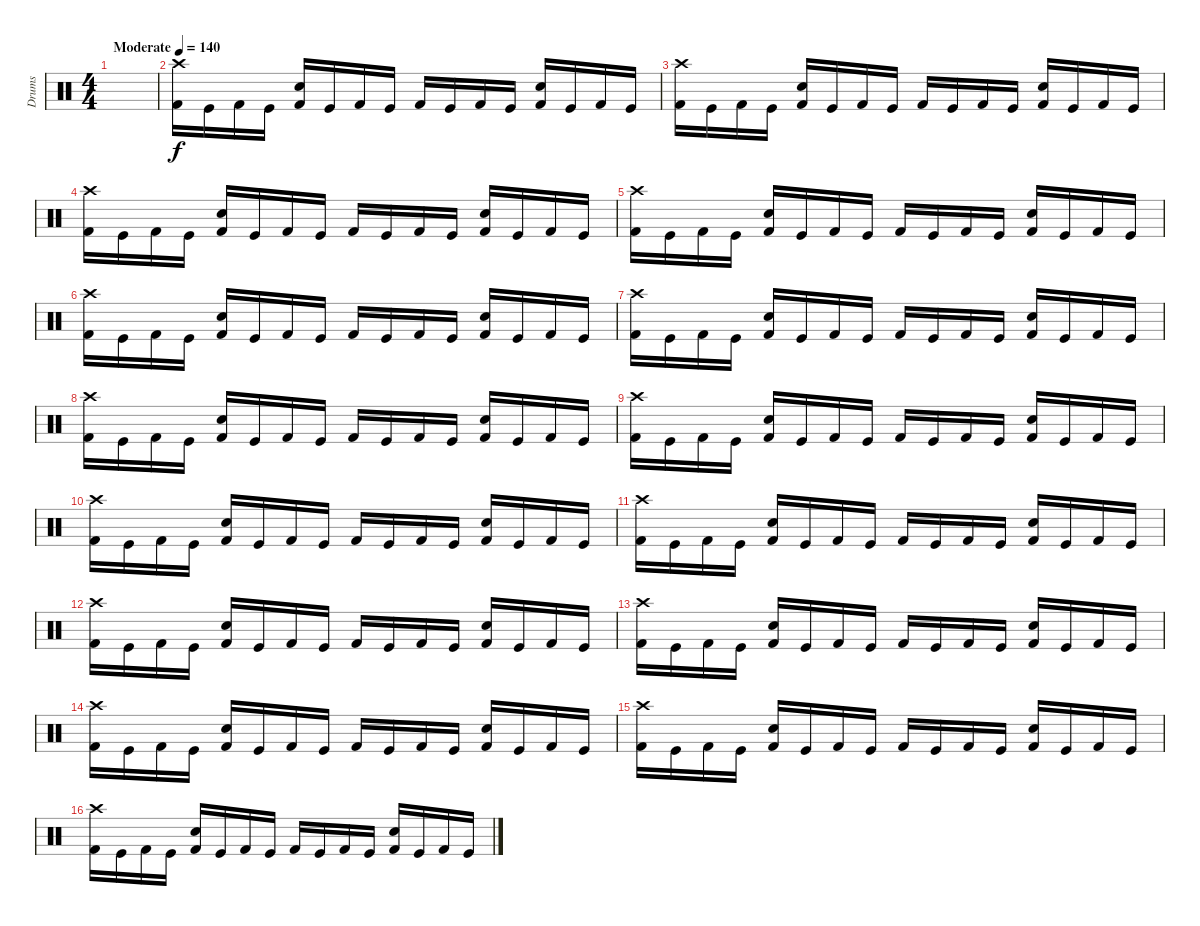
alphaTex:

\track ("Drums" "Drums") {instrument percussion}
\staff {score}
\articulation defaults
\ts (4 4)
\tempo (140 "Moderate")
\clef neutral
\ks c
|
("Crash high (hit)" "Kick (hit) 2").16 "Kick (hit)".16 "Kick (hit) 2".16 "Kick (hit)".16 ("Electric Snare (hit)" "Kick (hit) 2").16 "Kick (hit)".16 "Kick (hit) 2".16 "Kick (hit)".16 "Kick (hit) 2".16 "Kick (hit)".16 "Kick (hit) 2".16 "Kick (hit)".16 ("Electric Snare (hit)" "Kick (hit) 2").16 "Kick (hit)".16 "Kick (hit) 2".16 "Kick (hit)".16 |
("Crash high (hit)" "Kick (hit) 2").16 "Kick (hit)".16 "Kick (hit) 2".16 "Kick (hit)".16 ("Electric Snare (hit)" "Kick (hit) 2").16 "Kick (hit)".16 "Kick (hit) 2".16 "Kick (hit)".16 "Kick (hit) 2".16 "Kick (hit)".16 "Kick (hit) 2".16 "Kick (hit)".16 ("Electric Snare (hit)" "Kick (hit) 2").16 "Kick (hit)".16 "Kick (hit) 2".16 "Kick (hit)".16 |
("Crash high (hit)" "Kick (hit) 2").16 "Kick (hit)".16 "Kick (hit) 2".16 "Kick (hit)".16 ("Electric Snare (hit)" "Kick (hit) 2").16 "Kick (hit)".16 "Kick (hit) 2".16 "Kick (hit)".16 "Kick (hit) 2".16 "Kick (hit)".16 "Kick (hit) 2".16 "Kick (hit)".16 ("Electric Snare (hit)" "Kick (hit) 2").16 "Kick (hit)".16 "Kick (hit) 2".16 "Kick (hit)".16 |
("Crash high (hit)" "Kick (hit) 2").16 "Kick (hit)".16 "Kick (hit) 2".16 "Kick (hit)".16 ("Electric Snare (hit)" "Kick (hit) 2").16 "Kick (hit)".16 "Kick (hit) 2".16 "Kick (hit)".16 "Kick (hit) 2".16 "Kick (hit)".16 "Kick (hit) 2".16 "Kick (hit)".16 ("Electric Snare (hit)" "Kick (hit) 2").16 "Kick (hit)".16 "Kick (hit) 2".16 "Kick (hit)".16 |
("Crash high (hit)" "Kick (hit) 2").16 "Kick (hit)".16 "Kick (hit) 2".16 "Kick (hit)".16 ("Electric Snare (hit)" "Kick (hit) 2").16 "Kick (hit)".16 "Kick (hit) 2".16 "Kick (hit)".16 "Kick (hit) 2".16 "Kick (hit)".16 "Kick (hit) 2".16 "Kick (hit)".16 ("Electric Snare (hit)" "Kick (hit) 2").16 "Kick (hit)".16 "Kick (hit) 2".16 "Kick (hit)".16 |
("Crash high (hit)" "Kick (hit) 2").16 "Kick (hit)".16 "Kick (hit) 2".16 "Kick (hit)".16 ("Electric Snare (hit)" "Kick (hit) 2").16 "Kick (hit)".16 "Kick (hit) 2".16 "Kick (hit)".16 "Kick (hit) 2".16 "Kick (hit)".16 "Kick (hit) 2".16 "Kick (hit)".16 ("Electric Snare (hit)" "Kick (hit) 2").16 "Kick (hit)".16 "Kick (hit) 2".16 "Kick (hit)".16 |
("Crash high (hit)" "Kick (hit) 2").16 "Kick (hit)".16 "Kick (hit) 2".16 "Kick (hit)".16 ("Electric Snare (hit)" "Kick (hit) 2").16 "Kick (hit)".16 "Kick (hit) 2".16 "Kick (hit)".16 "Kick (hit) 2".16 "Kick (hit)".16 "Kick (hit) 2".16 "Kick (hit)".16 ("Electric Snare (hit)" "Kick (hit) 2").16 "Kick (hit)".16 "Kick (hit) 2".16 "Kick (hit)".16 |
("Crash high (hit)" "Kick (hit) 2").16 "Kick (hit)".16 "Kick (hit) 2".16 "Kick (hit)".16 ("Electric Snare (hit)" "Kick (hit) 2").16 "Kick (hit)".16 "Kick (hit) 2".16 "Kick (hit)".16 "Kick (hit) 2".16 "Kick (hit)".16 "Kick (hit) 2".16 "Kick (hit)".16 ("Electric Snare (hit)" "Kick (hit) 2").16 "Kick (hit)".16 "Kick (hit) 2".16 "Kick (hit)".16 |
("Crash high (hit)" "Kick (hit) 2").16 "Kick (hit)".16 "Kick (hit) 2".16 "Kick (hit)".16 ("Electric Snare (hit)" "Kick (hit) 2").16 "Kick (hit)".16 "Kick (hit) 2".16 "Kick (hit)".16 "Kick (hit) 2".16 "Kick (hit)".16 "Kick (hit) 2".16 "Kick (hit)".16 ("Electric Snare (hit)" "Kick (hit) 2").16 "Kick (hit)".16 "Kick (hit) 2".16 "Kick (hit)".16 |
("Crash high (hit)" "Kick (hit) 2").16 "Kick (hit)".16 "Kick (hit) 2".16 "Kick (hit)".16 ("Electric Snare (hit)" "Kick (hit) 2").16 "Kick (hit)".16 "Kick (hit) 2".16 "Kick (hit)".16 "Kick (hit) 2".16 "Kick (hit)".16 "Kick (hit) 2".16 "Kick (hit)".16 ("Electric Snare (hit)" "Kick (hit) 2").16 "Kick (hit)".16 "Kick (hit) 2".16 "Kick (hit)".16 |
("Crash high (hit)" "Kick (hit) 2").16 "Kick (hit)".16 "Kick (hit) 2".16 "Kick (hit)".16 ("Electric Snare (hit)" "Kick (hit) 2").16 "Kick (hit)".16 "Kick (hit) 2".16 "Kick (hit)".16 "Kick (hit) 2".16 "Kick (hit)".16 "Kick (hit) 2".16 "Kick (hit)".16 ("Electric Snare (hit)" "Kick (hit) 2").16 "Kick (hit)".16 "Kick (hit) 2".16 "Kick (hit)".16 |
("Crash high (hit)" "Kick (hit) 2").16 "Kick (hit)".16 "Kick (hit) 2".16 "Kick (hit)".16 ("Electric Snare (hit)" "Kick (hit) 2").16 "Kick (hit)".16 "Kick (hit) 2".16 "Kick (hit)".16 "Kick (hit) 2".16 "Kick (hit)".16 "Kick (hit) 2".16 "Kick (hit)".16 ("Electric Snare (hit)" "Kick (hit) 2").16 "Kick (hit)".16 "Kick (hit) 2".16 "Kick (hit)".16 |
("Crash high (hit)" "Kick (hit) 2").16 "Kick (hit)".16 "Kick (hit) 2".16 "Kick (hit)".16 ("Electric Snare (hit)" "Kick (hit) 2").16 "Kick (hit)".16 "Kick (hit) 2".16 "Kick (hit)".16 "Kick (hit) 2".16 "Kick (hit)".16 "Kick (hit) 2".16 "Kick (hit)".16 ("Electric Snare (hit)" "Kick (hit) 2").16 "Kick (hit)".16 "Kick (hit) 2".16 "Kick (hit)".16 |
("Crash high (hit)" "Kick (hit) 2").16 "Kick (hit)".16 "Kick (hit) 2".16 "Kick (hit)".16 ("Electric Snare (hit)" "Kick (hit) 2").16 "Kick (hit)".16 "Kick (hit) 2".16 "Kick (hit)".16 "Kick (hit) 2".16 "Kick (hit)".16 "Kick (hit) 2".16 "Kick (hit)".16 ("Electric Snare (hit)" "Kick (hit) 2").16 "Kick (hit)".16 "Kick (hit) 2".16 "Kick (hit)".16 |
("Crash high (hit)" "Kick (hit) 2").16 "Kick (hit)".16 "Kick (hit) 2".16 "Kick (hit)".16 ("Electric Snare (hit)" "Kick (hit) 2").16 "Kick (hit)".16 "Kick (hit) 2".16 "Kick (hit)".16 "Kick (hit) 2".16 "Kick (hit)".16 "Kick (hit) 2".16 "Kick (hit)".16 ("Electric Snare (hit)" "Kick (hit) 2").16 "Kick (hit)".16 "Kick (hit) 2".16 "Kick (hit)".16
